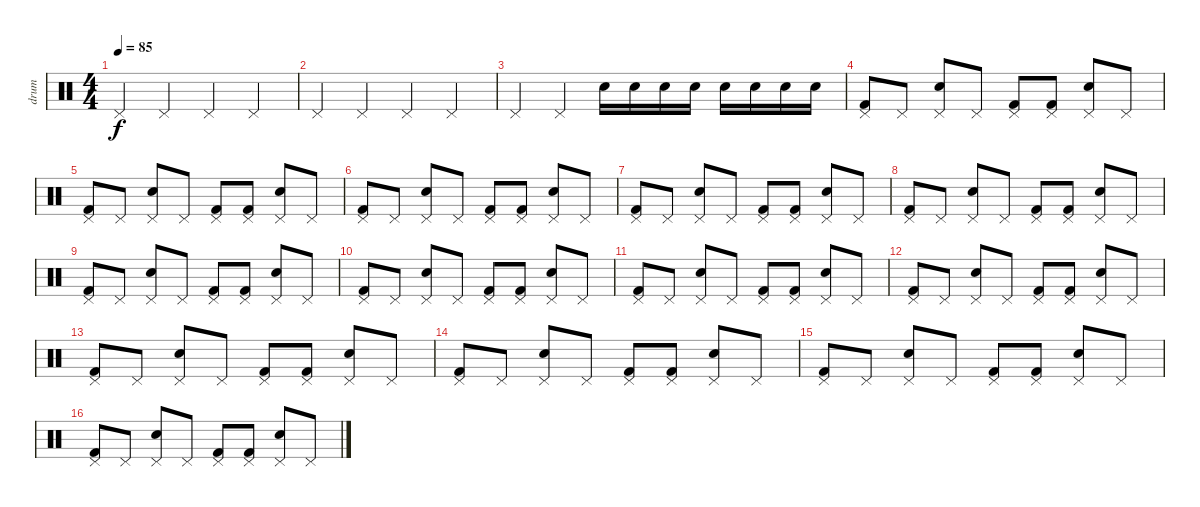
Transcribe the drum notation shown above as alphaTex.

\track ("drum" "drum") {instrument percussion}
\staff {score}
\articulation defaults
\ts (4 4)
\tempo 85
\clef neutral
\ks c "Pedal Hi-Hat (hit)".4{dy f} "Pedal Hi-Hat (hit)".4 "Pedal Hi-Hat (hit)".4 "Pedal Hi-Hat (hit)".4
|
"Pedal Hi-Hat (hit)".4 "Pedal Hi-Hat (hit)".4 "Pedal Hi-Hat (hit)".4 "Pedal Hi-Hat (hit)".4 |
"Pedal Hi-Hat (hit)".4 "Pedal Hi-Hat (hit)".4 "Snare (hit) 2".16 "Snare (hit) 2".16 "Snare (hit) 2".16 "Snare (hit) 2".16 "Snare (hit) 2".16 "Snare (hit) 2".16 "Snare (hit) 2".16 "Snare (hit) 2".16 |
("Pedal Hi-Hat (hit)" "Kick (hit) 2").8 "Pedal Hi-Hat (hit)".8 ("Pedal Hi-Hat (hit)" "Snare (hit) 2").8 "Pedal Hi-Hat (hit)".8 ("Pedal Hi-Hat (hit)" "Kick (hit) 2").8 ("Pedal Hi-Hat (hit)" "Kick (hit) 2").8 ("Pedal Hi-Hat (hit)" "Snare (hit) 2").8 "Pedal Hi-Hat (hit)".8 |
("Pedal Hi-Hat (hit)" "Kick (hit) 2").8 "Pedal Hi-Hat (hit)".8 ("Pedal Hi-Hat (hit)" "Snare (hit) 2").8 "Pedal Hi-Hat (hit)".8 ("Pedal Hi-Hat (hit)" "Kick (hit) 2").8 ("Pedal Hi-Hat (hit)" "Kick (hit) 2").8 ("Pedal Hi-Hat (hit)" "Snare (hit) 2").8 "Pedal Hi-Hat (hit)".8 |
("Pedal Hi-Hat (hit)" "Kick (hit) 2").8 "Pedal Hi-Hat (hit)".8 ("Pedal Hi-Hat (hit)" "Snare (hit) 2").8 "Pedal Hi-Hat (hit)".8 ("Pedal Hi-Hat (hit)" "Kick (hit) 2").8 ("Pedal Hi-Hat (hit)" "Kick (hit) 2").8 ("Pedal Hi-Hat (hit)" "Snare (hit) 2").8 "Pedal Hi-Hat (hit)".8 |
("Pedal Hi-Hat (hit)" "Kick (hit) 2").8 "Pedal Hi-Hat (hit)".8 ("Pedal Hi-Hat (hit)" "Snare (hit) 2").8 "Pedal Hi-Hat (hit)".8 ("Pedal Hi-Hat (hit)" "Kick (hit) 2").8 ("Pedal Hi-Hat (hit)" "Kick (hit) 2").8 ("Pedal Hi-Hat (hit)" "Snare (hit) 2").8 "Pedal Hi-Hat (hit)".8 |
("Pedal Hi-Hat (hit)" "Kick (hit) 2").8 "Pedal Hi-Hat (hit)".8 ("Pedal Hi-Hat (hit)" "Snare (hit) 2").8 "Pedal Hi-Hat (hit)".8 ("Pedal Hi-Hat (hit)" "Kick (hit) 2").8 ("Pedal Hi-Hat (hit)" "Kick (hit) 2").8 ("Pedal Hi-Hat (hit)" "Snare (hit) 2").8 "Pedal Hi-Hat (hit)".8 |
("Pedal Hi-Hat (hit)" "Kick (hit) 2").8 "Pedal Hi-Hat (hit)".8 ("Pedal Hi-Hat (hit)" "Snare (hit) 2").8 "Pedal Hi-Hat (hit)".8 ("Pedal Hi-Hat (hit)" "Kick (hit) 2").8 ("Pedal Hi-Hat (hit)" "Kick (hit) 2").8 ("Pedal Hi-Hat (hit)" "Snare (hit) 2").8 "Pedal Hi-Hat (hit)".8 |
("Pedal Hi-Hat (hit)" "Kick (hit) 2").8 "Pedal Hi-Hat (hit)".8 ("Pedal Hi-Hat (hit)" "Snare (hit) 2").8 "Pedal Hi-Hat (hit)".8 ("Pedal Hi-Hat (hit)" "Kick (hit) 2").8 ("Pedal Hi-Hat (hit)" "Kick (hit) 2").8 ("Pedal Hi-Hat (hit)" "Snare (hit) 2").8 "Pedal Hi-Hat (hit)".8 |
("Pedal Hi-Hat (hit)" "Kick (hit) 2").8 "Pedal Hi-Hat (hit)".8 ("Pedal Hi-Hat (hit)" "Snare (hit) 2").8 "Pedal Hi-Hat (hit)".8 ("Pedal Hi-Hat (hit)" "Kick (hit) 2").8 ("Pedal Hi-Hat (hit)" "Kick (hit) 2").8 ("Pedal Hi-Hat (hit)" "Snare (hit) 2").8 "Pedal Hi-Hat (hit)".8 |
("Pedal Hi-Hat (hit)" "Kick (hit) 2").8 "Pedal Hi-Hat (hit)".8 ("Pedal Hi-Hat (hit)" "Snare (hit) 2").8 "Pedal Hi-Hat (hit)".8 ("Pedal Hi-Hat (hit)" "Kick (hit) 2").8 ("Pedal Hi-Hat (hit)" "Kick (hit) 2").8 ("Pedal Hi-Hat (hit)" "Snare (hit) 2").8 "Pedal Hi-Hat (hit)".8 |
("Pedal Hi-Hat (hit)" "Kick (hit) 2").8 "Pedal Hi-Hat (hit)".8 ("Pedal Hi-Hat (hit)" "Snare (hit) 2").8 "Pedal Hi-Hat (hit)".8 ("Pedal Hi-Hat (hit)" "Kick (hit) 2").8 ("Pedal Hi-Hat (hit)" "Kick (hit) 2").8 ("Pedal Hi-Hat (hit)" "Snare (hit) 2").8 "Pedal Hi-Hat (hit)".8 |
("Pedal Hi-Hat (hit)" "Kick (hit) 2").8 "Pedal Hi-Hat (hit)".8 ("Pedal Hi-Hat (hit)" "Snare (hit) 2").8 "Pedal Hi-Hat (hit)".8 ("Pedal Hi-Hat (hit)" "Kick (hit) 2").8 ("Pedal Hi-Hat (hit)" "Kick (hit) 2").8 ("Pedal Hi-Hat (hit)" "Snare (hit) 2").8 "Pedal Hi-Hat (hit)".8 |
("Pedal Hi-Hat (hit)" "Kick (hit) 2").8 "Pedal Hi-Hat (hit)".8 ("Pedal Hi-Hat (hit)" "Snare (hit) 2").8 "Pedal Hi-Hat (hit)".8 ("Pedal Hi-Hat (hit)" "Kick (hit) 2").8 ("Pedal Hi-Hat (hit)" "Kick (hit) 2").8 ("Pedal Hi-Hat (hit)" "Snare (hit) 2").8 "Pedal Hi-Hat (hit)".8 |
("Pedal Hi-Hat (hit)" "Kick (hit) 2").8 "Pedal Hi-Hat (hit)".8 ("Pedal Hi-Hat (hit)" "Snare (hit) 2").8 "Pedal Hi-Hat (hit)".8 ("Pedal Hi-Hat (hit)" "Kick (hit) 2").8 ("Pedal Hi-Hat (hit)" "Kick (hit) 2").8 ("Pedal Hi-Hat (hit)" "Snare (hit) 2").8 "Pedal Hi-Hat (hit)".8
